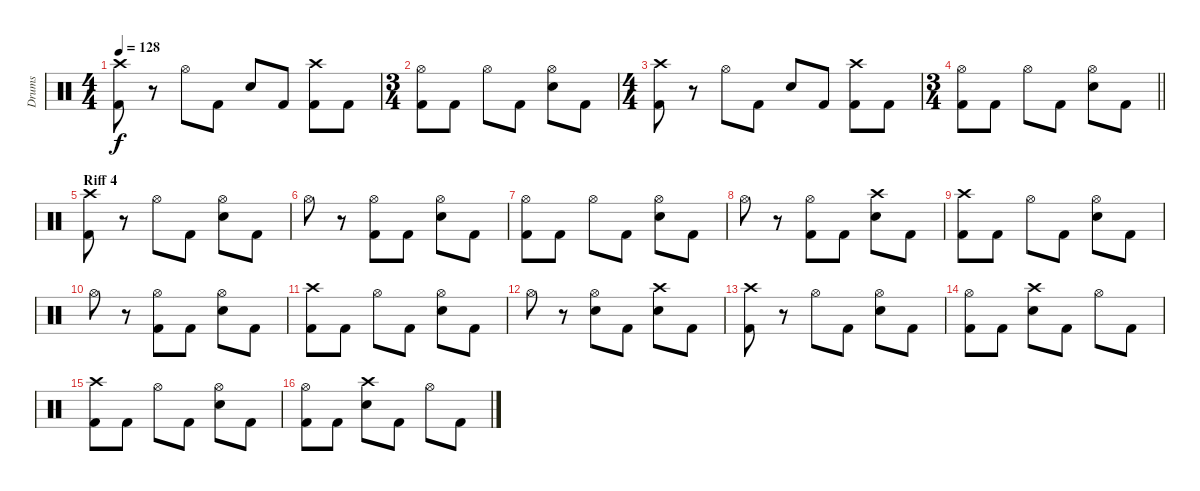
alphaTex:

\track ("Drums" "Drums") {instrument percussion}
\staff {score}
\articulation defaults
\ts (4 4)
\tempo 128
\clef neutral
\ks c
("Crash high (hit)" "Kick (hit) 2").8{dy f} r.8 "Hi-Hat (open)".8 "Kick (hit) 2".8 "Electric Snare (hit)".8 "Kick (hit) 2".8 ("Crash high (hit)" "Kick (hit) 2").8 "Kick (hit) 2".8 |
\ts (3 4)
("Hi-Hat (open)" "Kick (hit) 2").8 "Kick (hit) 2".8 "Hi-Hat (open)".8 "Kick (hit) 2".8 ("Hi-Hat (open)" "Electric Snare (hit)").8 "Kick (hit) 2".8 |
\ts (4 4)
("Crash high (hit)" "Kick (hit) 2").8 r.8 "Hi-Hat (open)".8 "Kick (hit) 2".8 "Electric Snare (hit)".8 "Kick (hit) 2".8 ("Crash high (hit)" "Kick (hit) 2").8 "Kick (hit) 2".8 |
\ts (3 4)
\barLineRight lightlight
("Hi-Hat (open)" "Kick (hit) 2").8 "Kick (hit) 2".8 "Hi-Hat (open)".8 "Kick (hit) 2".8 ("Hi-Hat (open)" "Electric Snare (hit)").8 "Kick (hit) 2".8 |
\section ("" "Riff 4")
("Crash high (hit)" "Kick (hit) 2").8 r.8 "Hi-Hat (open)".8 "Kick (hit) 2".8 ("Hi-Hat (open)" "Electric Snare (hit)").8 "Kick (hit) 2".8 |
"Hi-Hat (open)".8 r.8 ("Hi-Hat (open)" "Kick (hit) 2").8 "Kick (hit) 2".8 ("Hi-Hat (open)" "Electric Snare (hit)").8 "Kick (hit) 2".8 |
("Hi-Hat (open)" "Kick (hit) 2").8 "Kick (hit) 2".8 "Hi-Hat (open)".8 "Kick (hit) 2".8 ("Hi-Hat (open)" "Electric Snare (hit)").8 "Kick (hit) 2".8 |
"Hi-Hat (open)".8 r.8 ("Hi-Hat (open)" "Kick (hit) 2").8 "Kick (hit) 2".8 ("Crash high (hit)" "Electric Snare (hit)").8 "Kick (hit) 2".8 |
("Crash high (hit)" "Kick (hit) 2").8 "Kick (hit) 2".8 "Hi-Hat (open)".8 "Kick (hit) 2".8 ("Hi-Hat (open)" "Electric Snare (hit)").8 "Kick (hit) 2".8 |
"Hi-Hat (open)".8 r.8 ("Hi-Hat (open)" "Kick (hit) 2").8 "Kick (hit) 2".8 ("Hi-Hat (open)" "Electric Snare (hit)").8 "Kick (hit) 2".8 |
("Crash high (hit)" "Kick (hit) 2").8 "Kick (hit) 2".8 "Hi-Hat (open)".8 "Kick (hit) 2".8 ("Hi-Hat (open)" "Electric Snare (hit)").8 "Kick (hit) 2".8 |
"Hi-Hat (open)".8 r.8 ("Hi-Hat (open)" "Electric Snare (hit)").8 "Kick (hit) 2".8 ("Crash high (hit)" "Electric Snare (hit)").8 "Kick (hit) 2".8 |
("Crash high (hit)" "Kick (hit) 2").8 r.8 "Hi-Hat (open)".8 "Kick (hit) 2".8 ("Hi-Hat (open)" "Electric Snare (hit)").8 "Kick (hit) 2".8 |
("Hi-Hat (open)" "Kick (hit) 2").8 "Kick (hit) 2".8 ("Crash high (hit)" "Electric Snare (hit)").8 "Kick (hit) 2".8 "Hi-Hat (open)".8 "Kick (hit) 2".8 |
("Crash high (hit)" "Kick (hit) 2").8 "Kick (hit) 2".8 "Hi-Hat (open)".8 "Kick (hit) 2".8 ("Hi-Hat (open)" "Electric Snare (hit)").8 "Kick (hit) 2".8 |
("Hi-Hat (open)" "Kick (hit) 2").8 "Kick (hit) 2".8 ("Crash high (hit)" "Electric Snare (hit)").8 "Kick (hit) 2".8 "Hi-Hat (open)".8 "Kick (hit) 2".8
